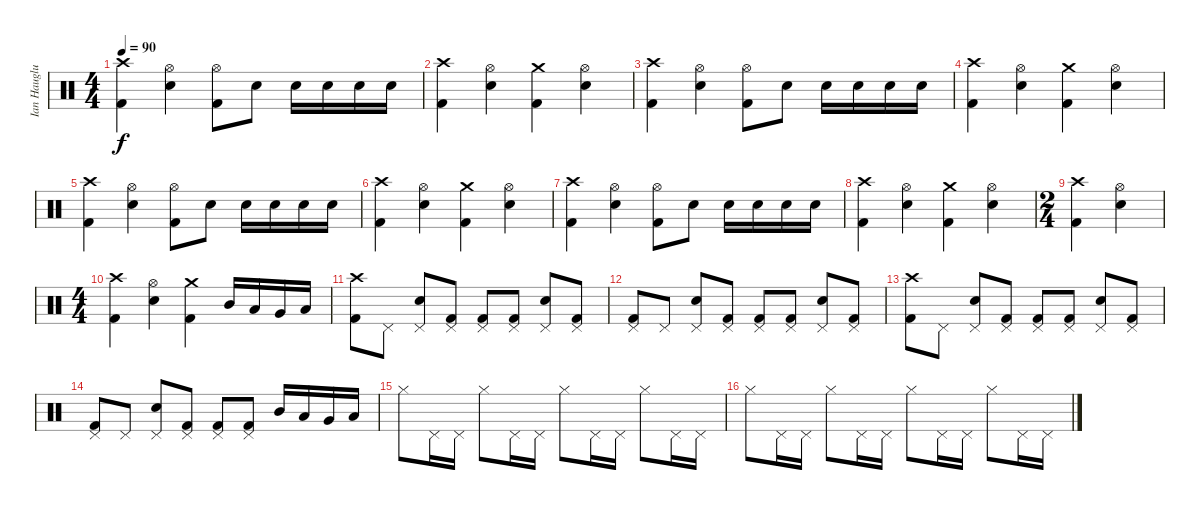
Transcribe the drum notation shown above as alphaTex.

\track ("Ian Hauglund" "Ian Hauglu") {instrument percussion}
\staff {score}
\articulation defaults
\ts (4 4)
\tempo 90
\clef neutral
\ks c
("Kick (hit) 2" "Crash high (hit)").4{dy f} ("Electric Snare (hit)" "Hi-Hat (open)").4 ("Kick (hit) 2" "Hi-Hat (open)").8 "Electric Snare (hit)".8 "Electric Snare (hit)".16 "Electric Snare (hit)".16 "Electric Snare (hit)".16 "Electric Snare (hit)".16 |
("Kick (hit) 2" "Crash high (hit)").4 ("Electric Snare (hit)" "Hi-Hat (open)").4 ("Kick (hit) 2" "Crash medium (hit)").4 ("Electric Snare (hit)" "Hi-Hat (open)").4 |
("Kick (hit) 2" "Crash high (hit)").4 ("Electric Snare (hit)" "Hi-Hat (open)").4 ("Kick (hit) 2" "Hi-Hat (open)").8 "Electric Snare (hit)".8 "Electric Snare (hit)".16 "Electric Snare (hit)".16 "Electric Snare (hit)".16 "Electric Snare (hit)".16 |
("Kick (hit) 2" "Crash high (hit)").4 ("Electric Snare (hit)" "Hi-Hat (open)").4 ("Kick (hit) 2" "Crash medium (hit)").4 ("Electric Snare (hit)" "Hi-Hat (open)").4 |
("Kick (hit) 2" "Crash high (hit)").4 ("Electric Snare (hit)" "Hi-Hat (open)").4 ("Kick (hit) 2" "Hi-Hat (open)").8 "Electric Snare (hit)".8 "Electric Snare (hit)".16 "Electric Snare (hit)".16 "Electric Snare (hit)".16 "Electric Snare (hit)".16 |
("Kick (hit) 2" "Crash high (hit)").4 ("Electric Snare (hit)" "Hi-Hat (open)").4 ("Kick (hit) 2" "Crash medium (hit)").4 ("Electric Snare (hit)" "Hi-Hat (open)").4 |
("Kick (hit) 2" "Crash high (hit)").4 ("Electric Snare (hit)" "Hi-Hat (open)").4 ("Kick (hit) 2" "Hi-Hat (open)").8 "Electric Snare (hit)".8 "Electric Snare (hit)".16 "Electric Snare (hit)".16 "Electric Snare (hit)".16 "Electric Snare (hit)".16 |
("Kick (hit) 2" "Crash high (hit)").4 ("Electric Snare (hit)" "Hi-Hat (open)").4 ("Kick (hit) 2" "Crash medium (hit)").4 ("Electric Snare (hit)" "Hi-Hat (open)").4 |
\ts (2 4)
("Kick (hit) 2" "Crash high (hit)").4 ("Electric Snare (hit)" "Hi-Hat (open)").4 |
\ts (4 4)
("Kick (hit) 2" "Crash high (hit)").4 ("Electric Snare (hit)" "Hi-Hat (open)").4 ("Kick (hit) 2" "Crash medium (hit)").4 "Mid Tom (hit)".16 "Low Tom (hit)".16 "Very Low Tom (hit)".16 "Low Floor Tom (hit)".16 |
("Kick (hit) 2" "Crash high (hit)").8 "Pedal Hi-Hat (hit)".8 ("Electric Snare (hit)" "Pedal Hi-Hat (hit)").8 ("Kick (hit) 2" "Pedal Hi-Hat (hit)").8 ("Kick (hit) 2" "Pedal Hi-Hat (hit)").8 ("Kick (hit) 2" "Pedal Hi-Hat (hit)").8 ("Electric Snare (hit)" "Pedal Hi-Hat (hit)").8 ("Kick (hit) 2" "Pedal Hi-Hat (hit)").8 |
("Kick (hit) 2" "Pedal Hi-Hat (hit)").8 "Pedal Hi-Hat (hit)".8 ("Electric Snare (hit)" "Pedal Hi-Hat (hit)").8 ("Kick (hit) 2" "Pedal Hi-Hat (hit)").8 ("Kick (hit) 2" "Pedal Hi-Hat (hit)").8 ("Kick (hit) 2" "Pedal Hi-Hat (hit)").8 ("Electric Snare (hit)" "Pedal Hi-Hat (hit)").8 ("Kick (hit) 2" "Pedal Hi-Hat (hit)").8 |
("Kick (hit) 2" "Crash high (hit)").8 "Pedal Hi-Hat (hit)".8 ("Electric Snare (hit)" "Pedal Hi-Hat (hit)").8 ("Kick (hit) 2" "Pedal Hi-Hat (hit)").8 ("Kick (hit) 2" "Pedal Hi-Hat (hit)").8 ("Kick (hit) 2" "Pedal Hi-Hat (hit)").8 ("Electric Snare (hit)" "Pedal Hi-Hat (hit)").8 ("Kick (hit) 2" "Pedal Hi-Hat (hit)").8 |
("Kick (hit) 2" "Pedal Hi-Hat (hit)").8 "Pedal Hi-Hat (hit)".8 ("Electric Snare (hit)" "Pedal Hi-Hat (hit)").8 ("Kick (hit) 2" "Pedal Hi-Hat (hit)").8 ("Kick (hit) 2" "Pedal Hi-Hat (hit)").8 ("Kick (hit) 2" "Pedal Hi-Hat (hit)").8 "Mid Tom (hit)".16 "Low Tom (hit)".16 "Very Low Tom (hit)".16 "Low Floor Tom (hit)".16 |
"Hi-Hat (closed)".8 "Pedal Hi-Hat (hit)".16 "Pedal Hi-Hat (hit)".16 "Hi-Hat (closed)".8 "Pedal Hi-Hat (hit)".16 "Pedal Hi-Hat (hit)".16 "Hi-Hat (closed)".8 "Pedal Hi-Hat (hit)".16 "Pedal Hi-Hat (hit)".16 "Hi-Hat (closed)".8 "Pedal Hi-Hat (hit)".16 "Pedal Hi-Hat (hit)".16 |
"Hi-Hat (closed)".8 "Pedal Hi-Hat (hit)".16 "Pedal Hi-Hat (hit)".16 "Hi-Hat (closed)".8 "Pedal Hi-Hat (hit)".16 "Pedal Hi-Hat (hit)".16 "Hi-Hat (closed)".8 "Pedal Hi-Hat (hit)".16 "Pedal Hi-Hat (hit)".16 "Hi-Hat (closed)".8 "Pedal Hi-Hat (hit)".16 "Pedal Hi-Hat (hit)".16
